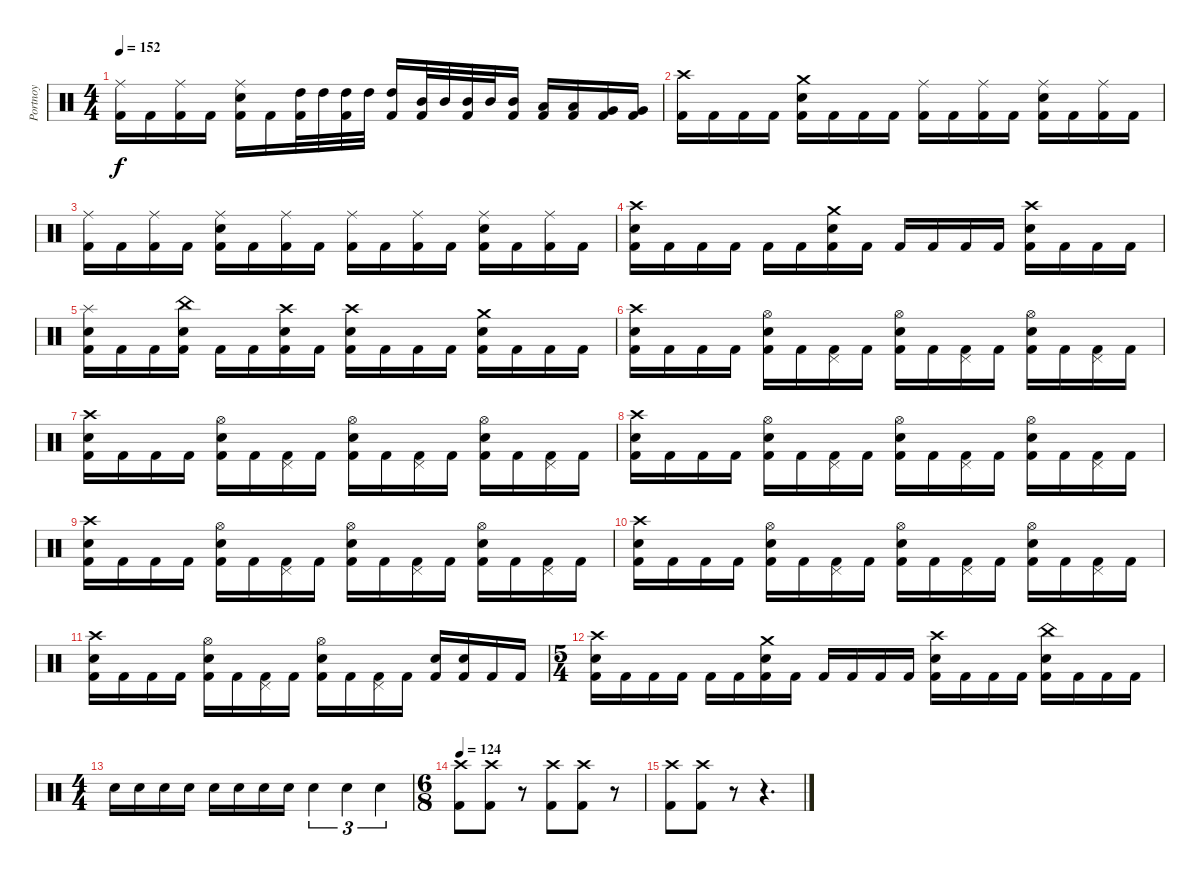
\track ("Portnoy" "Portnoy") {instrument percussion}
\staff {score}
\articulation defaults
\ts (4 4)
\tempo 152
\clef neutral
\ks c
("Ride (middle)" "Kick (hit) 2").16{dy f} "Kick (hit) 2".16 ("Ride (middle)" "Kick (hit) 2").16 "Kick (hit) 2".16 ("Ride (middle)" "Electric Snare (hit)" "Kick (hit) 2").16 "Kick (hit) 2".16 ("High Tom (hit)" "Kick (hit) 2").32 "High Tom (hit)".32 ("High Tom (hit)" "Kick (hit) 2").32 "High Tom (hit)".32 ("High Tom (hit)" "Kick (hit) 2").16 ("Mid Tom (hit)" "Kick (hit) 2").32 "Mid Tom (hit)".32 ("Mid Tom (hit)" "Kick (hit) 2").32 "Mid Tom (hit)".32 ("Mid Tom (hit)" "Kick (hit) 2").16 ("Low Tom (hit)" "Kick (hit) 2").16 ("Low Tom (hit)" "Kick (hit) 2").16 ("Very Low Tom (hit)" "Kick (hit) 2").16 ("Very Low Tom (hit)" "Kick (hit) 2").16 |
("Crash high (hit)" "Kick (hit) 2").16 "Kick (hit) 2".16 "Kick (hit) 2".16 "Kick (hit) 2".16 ("Crash medium (hit)" "Electric Snare (hit)" "Kick (hit) 2").16 "Kick (hit) 2".16 "Kick (hit) 2".16 "Kick (hit) 2".16 ("Ride (middle)" "Kick (hit) 2").16 "Kick (hit) 2".16 ("Ride (middle)" "Kick (hit) 2").16 "Kick (hit) 2".16 ("Ride (middle)" "Electric Snare (hit)" "Kick (hit) 2").16 "Kick (hit) 2".16 ("Ride (middle)" "Kick (hit) 2").16 "Kick (hit) 2".16 |
("Ride (middle)" "Kick (hit) 2").16 "Kick (hit) 2".16 ("Ride (middle)" "Kick (hit) 2").16 "Kick (hit) 2".16 ("Ride (middle)" "Electric Snare (hit)" "Kick (hit) 2").16 "Kick (hit) 2".16 ("Ride (middle)" "Kick (hit) 2").16 "Kick (hit) 2".16 ("Ride (middle)" "Kick (hit) 2").16 "Kick (hit) 2".16 ("Ride (middle)" "Kick (hit) 2").16 "Kick (hit) 2".16 ("Ride (middle)" "Electric Snare (hit)" "Kick (hit) 2").16 "Kick (hit) 2".16 ("Ride (middle)" "Kick (hit) 2").16 "Kick (hit) 2".16 |
("Crash high (hit)" "Electric Snare (hit)" "Kick (hit) 2").16 "Kick (hit) 2".16 "Kick (hit) 2".16 "Kick (hit) 2".16 "Kick (hit) 2".16 "Kick (hit) 2".16 ("Crash medium (hit)" "Electric Snare (hit)" "Kick (hit) 2").16 "Kick (hit) 2".16 "Kick (hit) 2".16 "Kick (hit) 2".16 "Kick (hit) 2".16 "Kick (hit) 2".16 ("Crash high (hit)" "Electric Snare (hit)" "Kick (hit) 2").16 "Kick (hit) 2".16 "Kick (hit) 2".16 "Kick (hit) 2".16 |
("Splash (hit)" "Electric Snare (hit)" "Kick (hit) 2").16 "Kick (hit) 2".16 "Kick (hit) 2".16 ("China (hit)" "Electric Snare (hit)" "Kick (hit) 2").16 "Kick (hit) 2".16 "Kick (hit) 2".16 ("Crash high (hit)" "Electric Snare (hit)" "Kick (hit) 2").16 "Kick (hit) 2".16 ("Crash high (hit)" "Electric Snare (hit)" "Kick (hit) 2").16 "Kick (hit) 2".16 "Kick (hit) 2".16 "Kick (hit) 2".16 ("Crash medium (hit)" "Electric Snare (hit)" "Kick (hit) 2").16 "Kick (hit) 2".16 "Kick (hit) 2".16 "Kick (hit) 2".16 |
("Crash high (hit)" "Electric Snare (hit)" "Kick (hit) 2").16 "Kick (hit) 2".16 "Kick (hit) 2".16 "Kick (hit) 2".16 ("Hi-Hat (open)" "Electric Snare (hit)" "Kick (hit) 2").16 "Kick (hit) 2".16 ("Pedal Hi-Hat (hit)" "Kick (hit) 2").16 "Kick (hit) 2".16 ("Hi-Hat (open)" "Electric Snare (hit)" "Kick (hit) 2").16 "Kick (hit) 2".16 ("Pedal Hi-Hat (hit)" "Kick (hit) 2").16 "Kick (hit) 2".16 ("Hi-Hat (open)" "Electric Snare (hit)" "Kick (hit) 2").16 "Kick (hit) 2".16 ("Pedal Hi-Hat (hit)" "Kick (hit) 2").16 "Kick (hit) 2".16 |
("Crash high (hit)" "Electric Snare (hit)" "Kick (hit) 2").16 "Kick (hit) 2".16 "Kick (hit) 2".16 "Kick (hit) 2".16 ("Hi-Hat (open)" "Electric Snare (hit)" "Kick (hit) 2").16 "Kick (hit) 2".16 ("Pedal Hi-Hat (hit)" "Kick (hit) 2").16 "Kick (hit) 2".16 ("Hi-Hat (open)" "Electric Snare (hit)" "Kick (hit) 2").16 "Kick (hit) 2".16 ("Pedal Hi-Hat (hit)" "Kick (hit) 2").16 "Kick (hit) 2".16 ("Hi-Hat (open)" "Electric Snare (hit)" "Kick (hit) 2").16 "Kick (hit) 2".16 ("Pedal Hi-Hat (hit)" "Kick (hit) 2").16 "Kick (hit) 2".16 |
("Crash high (hit)" "Electric Snare (hit)" "Kick (hit) 2").16 "Kick (hit) 2".16 "Kick (hit) 2".16 "Kick (hit) 2".16 ("Hi-Hat (open)" "Electric Snare (hit)" "Kick (hit) 2").16 "Kick (hit) 2".16 ("Pedal Hi-Hat (hit)" "Kick (hit) 2").16 "Kick (hit) 2".16 ("Hi-Hat (open)" "Electric Snare (hit)" "Kick (hit) 2").16 "Kick (hit) 2".16 ("Pedal Hi-Hat (hit)" "Kick (hit) 2").16 "Kick (hit) 2".16 ("Hi-Hat (open)" "Electric Snare (hit)" "Kick (hit) 2").16 "Kick (hit) 2".16 ("Pedal Hi-Hat (hit)" "Kick (hit) 2").16 "Kick (hit) 2".16 |
("Crash high (hit)" "Electric Snare (hit)" "Kick (hit) 2").16 "Kick (hit) 2".16 "Kick (hit) 2".16 "Kick (hit) 2".16 ("Hi-Hat (open)" "Electric Snare (hit)" "Kick (hit) 2").16 "Kick (hit) 2".16 ("Pedal Hi-Hat (hit)" "Kick (hit) 2").16 "Kick (hit) 2".16 ("Hi-Hat (open)" "Electric Snare (hit)" "Kick (hit) 2").16 "Kick (hit) 2".16 ("Pedal Hi-Hat (hit)" "Kick (hit) 2").16 "Kick (hit) 2".16 ("Hi-Hat (open)" "Electric Snare (hit)" "Kick (hit) 2").16 "Kick (hit) 2".16 ("Pedal Hi-Hat (hit)" "Kick (hit) 2").16 "Kick (hit) 2".16 |
("Crash high (hit)" "Electric Snare (hit)" "Kick (hit) 2").16 "Kick (hit) 2".16 "Kick (hit) 2".16 "Kick (hit) 2".16 ("Hi-Hat (open)" "Electric Snare (hit)" "Kick (hit) 2").16 "Kick (hit) 2".16 ("Pedal Hi-Hat (hit)" "Kick (hit) 2").16 "Kick (hit) 2".16 ("Hi-Hat (open)" "Electric Snare (hit)" "Kick (hit) 2").16 "Kick (hit) 2".16 ("Pedal Hi-Hat (hit)" "Kick (hit) 2").16 "Kick (hit) 2".16 ("Hi-Hat (open)" "Electric Snare (hit)" "Kick (hit) 2").16 "Kick (hit) 2".16 ("Pedal Hi-Hat (hit)" "Kick (hit) 2").16 "Kick (hit) 2".16 |
("Crash high (hit)" "Electric Snare (hit)" "Kick (hit) 2").16 "Kick (hit) 2".16 "Kick (hit) 2".16 "Kick (hit) 2".16 ("Hi-Hat (open)" "Electric Snare (hit)" "Kick (hit) 2").16 "Kick (hit) 2".16 ("Pedal Hi-Hat (hit)" "Kick (hit) 2").16 "Kick (hit) 2".16 ("Hi-Hat (open)" "Electric Snare (hit)" "Kick (hit) 2").16 "Kick (hit) 2".16 ("Pedal Hi-Hat (hit)" "Kick (hit) 2").16 "Kick (hit) 2".16 ("Electric Snare (hit)" "Kick (hit) 2").16 ("Electric Snare (hit)" "Kick (hit) 2").16 "Kick (hit) 2".16 "Kick (hit) 2".16 |
\ts (5 4)
("Crash high (hit)" "Electric Snare (hit)" "Kick (hit) 2").16 "Kick (hit) 2".16 "Kick (hit) 2".16 "Kick (hit) 2".16 "Kick (hit) 2".16 "Kick (hit) 2".16 ("Crash medium (hit)" "Electric Snare (hit)" "Kick (hit) 2").16 "Kick (hit) 2".16 "Kick (hit) 2".16 "Kick (hit) 2".16 "Kick (hit) 2".16 "Kick (hit) 2".16 ("Crash high (hit)" "Electric Snare (hit)" "Kick (hit) 2").16 "Kick (hit) 2".16 "Kick (hit) 2".16 "Kick (hit) 2".16 ("China (hit)" "Electric Snare (hit)" "Kick (hit) 2").16 "Kick (hit) 2".16 "Kick (hit) 2".16 "Kick (hit) 2".16 |
\ts (4 4)
"Electric Snare (hit)".16 "Electric Snare (hit)".16 "Electric Snare (hit)".16 "Electric Snare (hit)".16 "Electric Snare (hit)".16 "Electric Snare (hit)".16 "Electric Snare (hit)".16 "Electric Snare (hit)".16 "Electric Snare (hit)".4{tu (3 2)} "Electric Snare (hit)".4{tu (3 2)} "Electric Snare (hit)".4{tu (3 2)} |
\ts (6 8)
\tempo 124
("Crash high (hit)" "Kick (hit) 2").8 ("Crash high (hit)" "Kick (hit) 2").8 r.8 ("Crash high (hit)" "Kick (hit) 2").8 ("Crash high (hit)" "Kick (hit) 2").8 r.8 |
("Crash high (hit)" "Kick (hit) 2").8 ("Crash high (hit)" "Kick (hit) 2").8 r.8 r.4{d}
